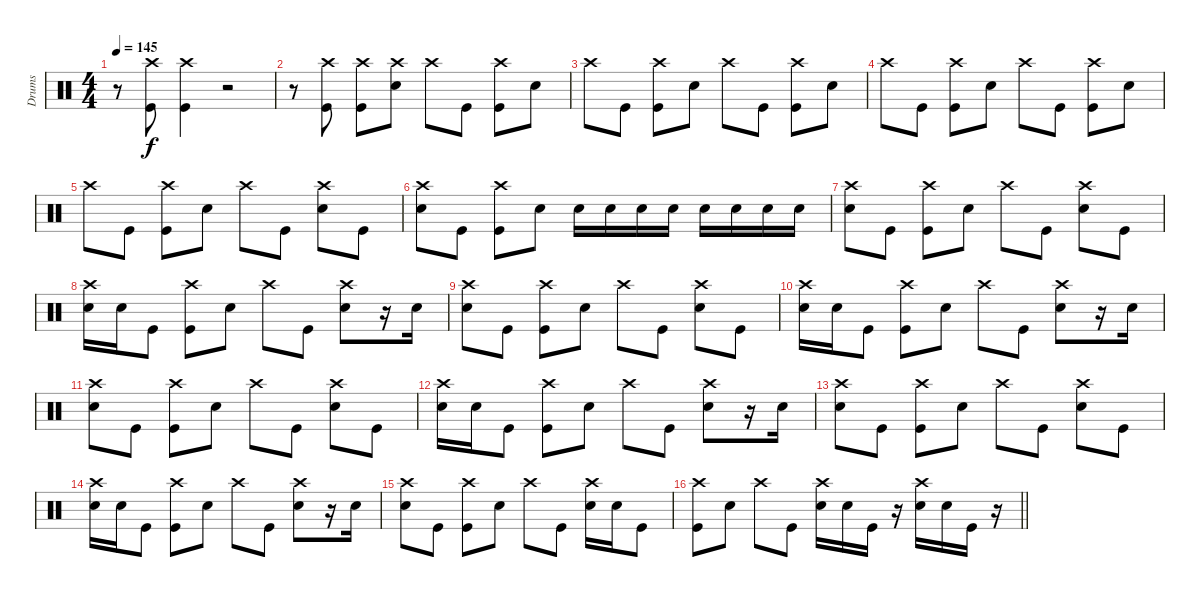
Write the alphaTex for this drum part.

\track ("Drums" "Drums") {instrument percussion}
\staff {score}
\articulation defaults
\ts (4 4)
\tempo 145
\clef neutral
\ks c
r.8{dy f} ("Crash high (hit)" "Kick (hit)").8 ("Crash high (hit)" "Kick (hit)").4 r.2 |
r.8 ("Crash high (hit)" "Kick (hit)").8 ("Crash high (hit)" "Kick (hit)").8 ("Crash high (hit)" "Electric Snare (hit)").8 "Crash high (hit)".8 "Kick (hit)".8 ("Crash high (hit)" "Kick (hit)").8 "Electric Snare (hit)".8 |
"Crash high (hit)".8 "Kick (hit)".8 ("Crash high (hit)" "Kick (hit)").8 "Electric Snare (hit)".8 "Crash high (hit)".8 "Kick (hit)".8 ("Crash high (hit)" "Kick (hit)").8 "Electric Snare (hit)".8 |
"Crash high (hit)".8 "Kick (hit)".8 ("Crash high (hit)" "Kick (hit)").8 "Electric Snare (hit)".8 "Crash high (hit)".8 "Kick (hit)".8 ("Crash high (hit)" "Kick (hit)").8 "Electric Snare (hit)".8 |
"Crash high (hit)".8 "Kick (hit)".8 ("Crash high (hit)" "Kick (hit)").8 "Electric Snare (hit)".8 "Crash high (hit)".8 "Kick (hit)".8 ("Crash high (hit)" "Electric Snare (hit)").8 "Kick (hit)".8 |
("Crash high (hit)" "Electric Snare (hit)").8 "Kick (hit)".8 ("Crash high (hit)" "Kick (hit)").8 "Electric Snare (hit)".8 "Electric Snare (hit)".16 "Electric Snare (hit)".16 "Electric Snare (hit)".16 "Electric Snare (hit)".16 "Electric Snare (hit)".16 "Electric Snare (hit)".16 "Electric Snare (hit)".16 "Electric Snare (hit)".16 |
("Crash high (hit)" "Electric Snare (hit)").8 "Kick (hit)".8 ("Crash high (hit)" "Kick (hit)").8 "Electric Snare (hit)".8 "Crash high (hit)".8 "Kick (hit)".8 ("Crash high (hit)" "Electric Snare (hit)").8 "Kick (hit)".8 |
("Crash high (hit)" "Electric Snare (hit)").16 "Electric Snare (hit)".16 "Kick (hit)".8 ("Crash high (hit)" "Kick (hit)").8 "Electric Snare (hit)".8 "Crash high (hit)".8 "Kick (hit)".8 ("Crash high (hit)" "Electric Snare (hit)").8 r.16 "Electric Snare (hit)".16 |
("Crash high (hit)" "Electric Snare (hit)").8 "Kick (hit)".8 ("Crash high (hit)" "Kick (hit)").8 "Electric Snare (hit)".8 "Crash high (hit)".8 "Kick (hit)".8 ("Crash high (hit)" "Electric Snare (hit)").8 "Kick (hit)".8 |
("Crash high (hit)" "Electric Snare (hit)").16 "Electric Snare (hit)".16 "Kick (hit)".8 ("Crash high (hit)" "Kick (hit)").8 "Electric Snare (hit)".8 "Crash high (hit)".8 "Kick (hit)".8 ("Crash high (hit)" "Electric Snare (hit)").8 r.16 "Electric Snare (hit)".16 |
("Crash high (hit)" "Electric Snare (hit)").8 "Kick (hit)".8 ("Crash high (hit)" "Kick (hit)").8 "Electric Snare (hit)".8 "Crash high (hit)".8 "Kick (hit)".8 ("Crash high (hit)" "Electric Snare (hit)").8 "Kick (hit)".8 |
("Crash high (hit)" "Electric Snare (hit)").16 "Electric Snare (hit)".16 "Kick (hit)".8 ("Crash high (hit)" "Kick (hit)").8 "Electric Snare (hit)".8 "Crash high (hit)".8 "Kick (hit)".8 ("Crash high (hit)" "Electric Snare (hit)").8 r.16 "Electric Snare (hit)".16 |
("Crash high (hit)" "Electric Snare (hit)").8 "Kick (hit)".8 ("Crash high (hit)" "Kick (hit)").8 "Electric Snare (hit)".8 "Crash high (hit)".8 "Kick (hit)".8 ("Crash high (hit)" "Electric Snare (hit)").8 "Kick (hit)".8 |
("Crash high (hit)" "Electric Snare (hit)").16 "Electric Snare (hit)".16 "Kick (hit)".8 ("Crash high (hit)" "Kick (hit)").8 "Electric Snare (hit)".8 "Crash high (hit)".8 "Kick (hit)".8 ("Crash high (hit)" "Electric Snare (hit)").8 r.16 "Electric Snare (hit)".16 |
("Crash high (hit)" "Electric Snare (hit)").8 "Kick (hit)".8 ("Crash high (hit)" "Kick (hit)").8 "Electric Snare (hit)".8 "Crash high (hit)".8 "Kick (hit)".8 ("Crash high (hit)" "Electric Snare (hit)").16 "Electric Snare (hit)".16 "Kick (hit)".8 |
\barLineRight lightlight
("Crash high (hit)" "Kick (hit)").8 "Electric Snare (hit)".8 "Crash high (hit)".8 "Kick (hit)".8 ("Crash high (hit)" "Electric Snare (hit)").16 "Electric Snare (hit)".16 "Kick (hit)".16 r.16 ("Crash high (hit)" "Electric Snare (hit)").16 "Electric Snare (hit)".16 "Kick (hit)".16 r.16
